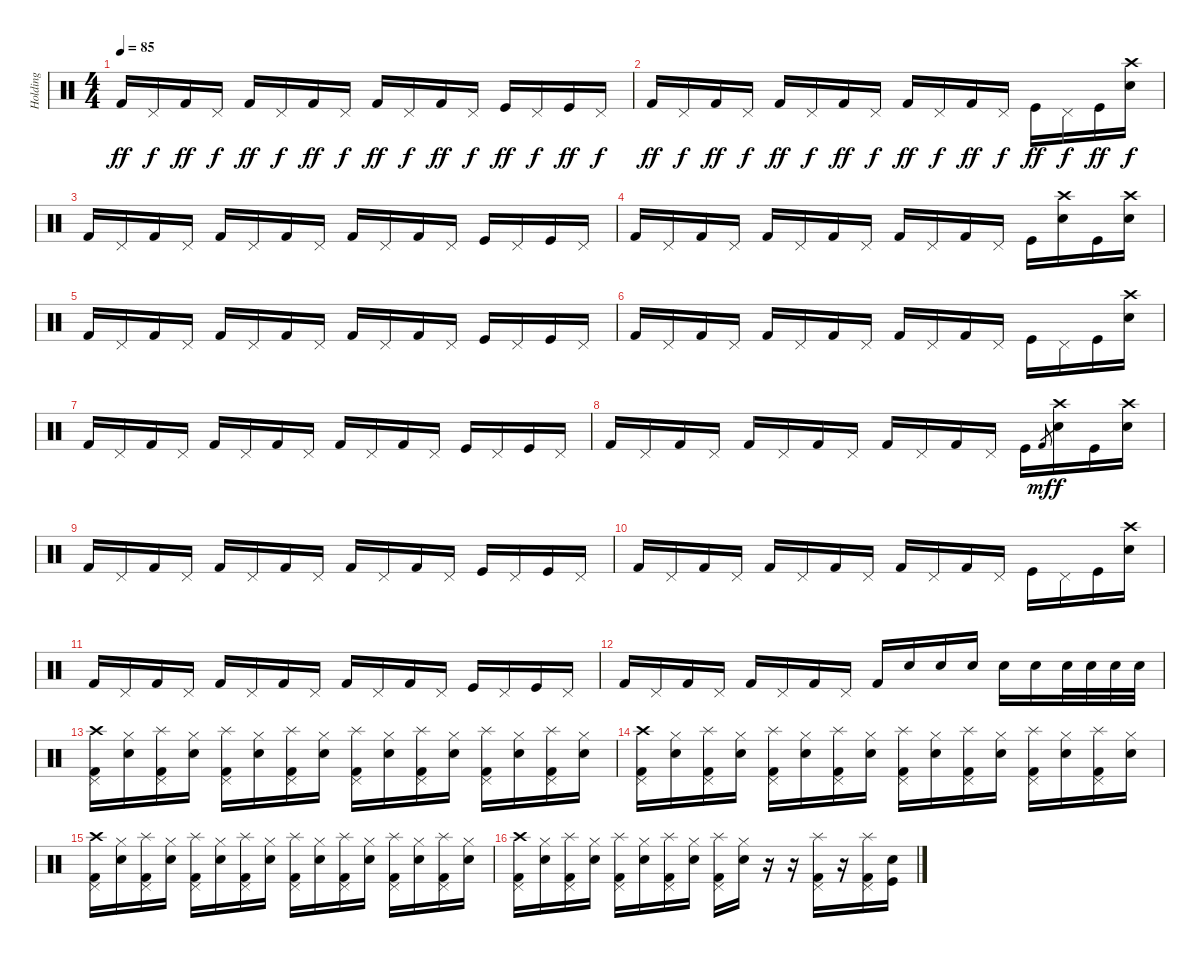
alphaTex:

\track ("Holding" "Holding") {instrument percussion}
\staff {score}
\articulation defaults
\ts (4 4)
\tempo 85
\clef neutral
\ks c "Kick (hit) 2".16{dy ff} "Pedal Hi-Hat (hit)".16{dy f} "Kick (hit) 2".16{dy ff} "Pedal Hi-Hat (hit)".16{dy f} "Kick (hit) 2".16{dy ff} "Pedal Hi-Hat (hit)".16{dy f} "Kick (hit) 2".16{dy ff} "Pedal Hi-Hat (hit)".16{dy f} "Kick (hit) 2".16{dy ff} "Pedal Hi-Hat (hit)".16{dy f} "Kick (hit) 2".16{dy ff} "Pedal Hi-Hat (hit)".16{dy f} "Kick (hit)".16{dy ff} "Pedal Hi-Hat (hit)".16{dy f} "Kick (hit)".16{dy ff} "Pedal Hi-Hat (hit)".16{dy f}
|
"Kick (hit) 2".16{dy ff} "Pedal Hi-Hat (hit)".16{dy f} "Kick (hit) 2".16{dy ff} "Pedal Hi-Hat (hit)".16{dy f} "Kick (hit) 2".16{dy ff} "Pedal Hi-Hat (hit)".16{dy f} "Kick (hit) 2".16{dy ff} "Pedal Hi-Hat (hit)".16{dy f} "Kick (hit) 2".16{dy ff} "Pedal Hi-Hat (hit)".16{dy f} "Kick (hit) 2".16{dy ff} "Pedal Hi-Hat (hit)".16{dy f} "Kick (hit)".16{dy ff} "Pedal Hi-Hat (hit)".16{dy f} "Kick (hit)".16{dy ff} ("Crash high (hit)" "Electric Snare (hit)").16{dy f} |
"Kick (hit) 2".16 "Pedal Hi-Hat (hit)".16 "Kick (hit) 2".16 "Pedal Hi-Hat (hit)".16 "Kick (hit) 2".16 "Pedal Hi-Hat (hit)".16 "Kick (hit) 2".16 "Pedal Hi-Hat (hit)".16 "Kick (hit) 2".16 "Pedal Hi-Hat (hit)".16 "Kick (hit) 2".16 "Pedal Hi-Hat (hit)".16 "Kick (hit)".16 "Pedal Hi-Hat (hit)".16 "Kick (hit)".16 "Pedal Hi-Hat (hit)".16 |
"Kick (hit) 2".16 "Pedal Hi-Hat (hit)".16 "Kick (hit) 2".16 "Pedal Hi-Hat (hit)".16 "Kick (hit) 2".16 "Pedal Hi-Hat (hit)".16 "Kick (hit) 2".16 "Pedal Hi-Hat (hit)".16 "Kick (hit) 2".16 "Pedal Hi-Hat (hit)".16 "Kick (hit) 2".16 "Pedal Hi-Hat (hit)".16 "Kick (hit)".16 ("Crash high (hit)" "Electric Snare (hit)").16 "Kick (hit)".16 ("Crash high (hit)" "Electric Snare (hit)").16 |
"Kick (hit) 2".16 "Pedal Hi-Hat (hit)".16 "Kick (hit) 2".16 "Pedal Hi-Hat (hit)".16 "Kick (hit) 2".16 "Pedal Hi-Hat (hit)".16 "Kick (hit) 2".16 "Pedal Hi-Hat (hit)".16 "Kick (hit) 2".16 "Pedal Hi-Hat (hit)".16 "Kick (hit) 2".16 "Pedal Hi-Hat (hit)".16 "Kick (hit)".16 "Pedal Hi-Hat (hit)".16 "Kick (hit)".16 "Pedal Hi-Hat (hit)".16 |
"Kick (hit) 2".16 "Pedal Hi-Hat (hit)".16 "Kick (hit) 2".16 "Pedal Hi-Hat (hit)".16 "Kick (hit) 2".16 "Pedal Hi-Hat (hit)".16 "Kick (hit) 2".16 "Pedal Hi-Hat (hit)".16 "Kick (hit) 2".16 "Pedal Hi-Hat (hit)".16 "Kick (hit) 2".16 "Pedal Hi-Hat (hit)".16 "Kick (hit)".16 "Pedal Hi-Hat (hit)".16 "Kick (hit)".16 ("Crash high (hit)" "Electric Snare (hit)").16 |
"Kick (hit) 2".16 "Pedal Hi-Hat (hit)".16 "Kick (hit) 2".16 "Pedal Hi-Hat (hit)".16 "Kick (hit) 2".16 "Pedal Hi-Hat (hit)".16 "Kick (hit) 2".16 "Pedal Hi-Hat (hit)".16 "Kick (hit) 2".16 "Pedal Hi-Hat (hit)".16 "Kick (hit) 2".16 "Pedal Hi-Hat (hit)".16 "Kick (hit)".16 "Pedal Hi-Hat (hit)".16 "Kick (hit)".16 "Pedal Hi-Hat (hit)".16 |
"Kick (hit) 2".16 "Pedal Hi-Hat (hit)".16 "Kick (hit) 2".16 "Pedal Hi-Hat (hit)".16 "Kick (hit) 2".16 "Pedal Hi-Hat (hit)".16 "Kick (hit) 2".16 "Pedal Hi-Hat (hit)".16 "Kick (hit) 2".16 "Pedal Hi-Hat (hit)".16 "Kick (hit) 2".16 "Pedal Hi-Hat (hit)".16 "Kick (hit)".16 "Kick (hit) 2".8{gr dy mf} ("Crash high (hit)" "Electric Snare (hit)").16{dy f} "Kick (hit)".16 ("Crash high (hit)" "Electric Snare (hit)").16 |
"Kick (hit) 2".16 "Pedal Hi-Hat (hit)".16 "Kick (hit) 2".16 "Pedal Hi-Hat (hit)".16 "Kick (hit) 2".16 "Pedal Hi-Hat (hit)".16 "Kick (hit) 2".16 "Pedal Hi-Hat (hit)".16 "Kick (hit) 2".16 "Pedal Hi-Hat (hit)".16 "Kick (hit) 2".16 "Pedal Hi-Hat (hit)".16 "Kick (hit)".16 "Pedal Hi-Hat (hit)".16 "Kick (hit)".16 "Pedal Hi-Hat (hit)".16 |
"Kick (hit) 2".16 "Pedal Hi-Hat (hit)".16 "Kick (hit) 2".16 "Pedal Hi-Hat (hit)".16 "Kick (hit) 2".16 "Pedal Hi-Hat (hit)".16 "Kick (hit) 2".16 "Pedal Hi-Hat (hit)".16 "Kick (hit) 2".16 "Pedal Hi-Hat (hit)".16 "Kick (hit) 2".16 "Pedal Hi-Hat (hit)".16 "Kick (hit)".16 "Pedal Hi-Hat (hit)".16 "Kick (hit)".16 ("Crash high (hit)" "Electric Snare (hit)").16 |
"Kick (hit) 2".16 "Pedal Hi-Hat (hit)".16 "Kick (hit) 2".16 "Pedal Hi-Hat (hit)".16 "Kick (hit) 2".16 "Pedal Hi-Hat (hit)".16 "Kick (hit) 2".16 "Pedal Hi-Hat (hit)".16 "Kick (hit) 2".16 "Pedal Hi-Hat (hit)".16 "Kick (hit) 2".16 "Pedal Hi-Hat (hit)".16 "Kick (hit)".16 "Pedal Hi-Hat (hit)".16 "Kick (hit)".16 "Pedal Hi-Hat (hit)".16 |
"Kick (hit) 2".16 "Pedal Hi-Hat (hit)".16 "Kick (hit) 2".16 "Pedal Hi-Hat (hit)".16 "Kick (hit) 2".16 "Pedal Hi-Hat (hit)".16 "Kick (hit) 2".16 "Pedal Hi-Hat (hit)".16 "Kick (hit) 2".16 "Electric Snare (hit)".16 "Electric Snare (hit)".16 "Electric Snare (hit)".16 "Electric Snare (hit)".16 "Electric Snare (hit)".16 "Electric Snare (hit)".32 "Electric Snare (hit)".32 "Electric Snare (hit)".32 "Electric Snare (hit)".32 |
("Crash high (hit)" "Pedal Hi-Hat (hit)" "Kick (hit) 2").16 ("Hi-Hat (closed)" "Electric Snare (hit)").16 ("Splash (hit)" "Pedal Hi-Hat (hit)" "Kick (hit) 2").16 ("Hi-Hat (closed)" "Electric Snare (hit)").16 ("Splash (hit)" "Pedal Hi-Hat (hit)" "Kick (hit) 2").16 ("Hi-Hat (closed)" "Electric Snare (hit)").16 ("Splash (hit)" "Pedal Hi-Hat (hit)" "Kick (hit) 2").16 ("Hi-Hat (closed)" "Electric Snare (hit)").16 ("Splash (hit)" "Pedal Hi-Hat (hit)" "Kick (hit) 2").16 ("Hi-Hat (closed)" "Electric Snare (hit)").16 ("Splash (hit)" "Pedal Hi-Hat (hit)" "Kick (hit) 2").16 ("Hi-Hat (closed)" "Electric Snare (hit)").16 ("Splash (hit)" "Pedal Hi-Hat (hit)" "Kick (hit) 2").16 ("Hi-Hat (closed)" "Electric Snare (hit)").16 ("Splash (hit)" "Pedal Hi-Hat (hit)" "Kick (hit) 2").16 ("Hi-Hat (closed)" "Electric Snare (hit)").16 |
("Crash high (hit)" "Pedal Hi-Hat (hit)" "Kick (hit) 2").16 ("Hi-Hat (closed)" "Electric Snare (hit)").16 ("Splash (hit)" "Pedal Hi-Hat (hit)" "Kick (hit) 2").16 ("Hi-Hat (closed)" "Electric Snare (hit)").16 ("Splash (hit)" "Pedal Hi-Hat (hit)" "Kick (hit) 2").16 ("Hi-Hat (closed)" "Electric Snare (hit)").16 ("Splash (hit)" "Pedal Hi-Hat (hit)" "Kick (hit) 2").16 ("Hi-Hat (closed)" "Electric Snare (hit)").16 ("Splash (hit)" "Pedal Hi-Hat (hit)" "Kick (hit) 2").16 ("Hi-Hat (closed)" "Electric Snare (hit)").16 ("Splash (hit)" "Pedal Hi-Hat (hit)" "Kick (hit) 2").16 ("Hi-Hat (closed)" "Electric Snare (hit)").16 ("Splash (hit)" "Pedal Hi-Hat (hit)" "Kick (hit) 2").16 ("Hi-Hat (closed)" "Electric Snare (hit)").16 ("Splash (hit)" "Pedal Hi-Hat (hit)" "Kick (hit) 2").16 ("Hi-Hat (closed)" "Electric Snare (hit)").16 |
("Crash high (hit)" "Pedal Hi-Hat (hit)" "Kick (hit) 2").16 ("Hi-Hat (closed)" "Electric Snare (hit)").16 ("Splash (hit)" "Pedal Hi-Hat (hit)" "Kick (hit) 2").16 ("Hi-Hat (closed)" "Electric Snare (hit)").16 ("Splash (hit)" "Pedal Hi-Hat (hit)" "Kick (hit) 2").16 ("Hi-Hat (closed)" "Electric Snare (hit)").16 ("Splash (hit)" "Pedal Hi-Hat (hit)" "Kick (hit) 2").16 ("Hi-Hat (closed)" "Electric Snare (hit)").16 ("Splash (hit)" "Pedal Hi-Hat (hit)" "Kick (hit) 2").16 ("Hi-Hat (closed)" "Electric Snare (hit)").16 ("Splash (hit)" "Pedal Hi-Hat (hit)" "Kick (hit) 2").16 ("Hi-Hat (closed)" "Electric Snare (hit)").16 ("Splash (hit)" "Pedal Hi-Hat (hit)" "Kick (hit) 2").16 ("Hi-Hat (closed)" "Electric Snare (hit)").16 ("Splash (hit)" "Pedal Hi-Hat (hit)" "Kick (hit) 2").16 ("Hi-Hat (closed)" "Electric Snare (hit)").16 |
("Crash high (hit)" "Pedal Hi-Hat (hit)" "Kick (hit) 2").16 ("Hi-Hat (closed)" "Electric Snare (hit)").16 ("Splash (hit)" "Pedal Hi-Hat (hit)" "Kick (hit) 2").16 ("Hi-Hat (closed)" "Electric Snare (hit)").16 ("Splash (hit)" "Pedal Hi-Hat (hit)" "Kick (hit) 2").16 ("Hi-Hat (closed)" "Electric Snare (hit)").16 ("Splash (hit)" "Pedal Hi-Hat (hit)" "Kick (hit) 2").16 ("Hi-Hat (closed)" "Electric Snare (hit)").16 ("Splash (hit)" "Pedal Hi-Hat (hit)" "Kick (hit) 2").16 ("Hi-Hat (closed)" "Electric Snare (hit)").16 r.16 r.16 ("Splash (hit)" "Pedal Hi-Hat (hit)" "Kick (hit) 2").16 r.16 ("Splash (hit)" "Pedal Hi-Hat (hit)" "Kick (hit) 2").16 ("Electric Snare (hit)" "Kick (hit)").16
